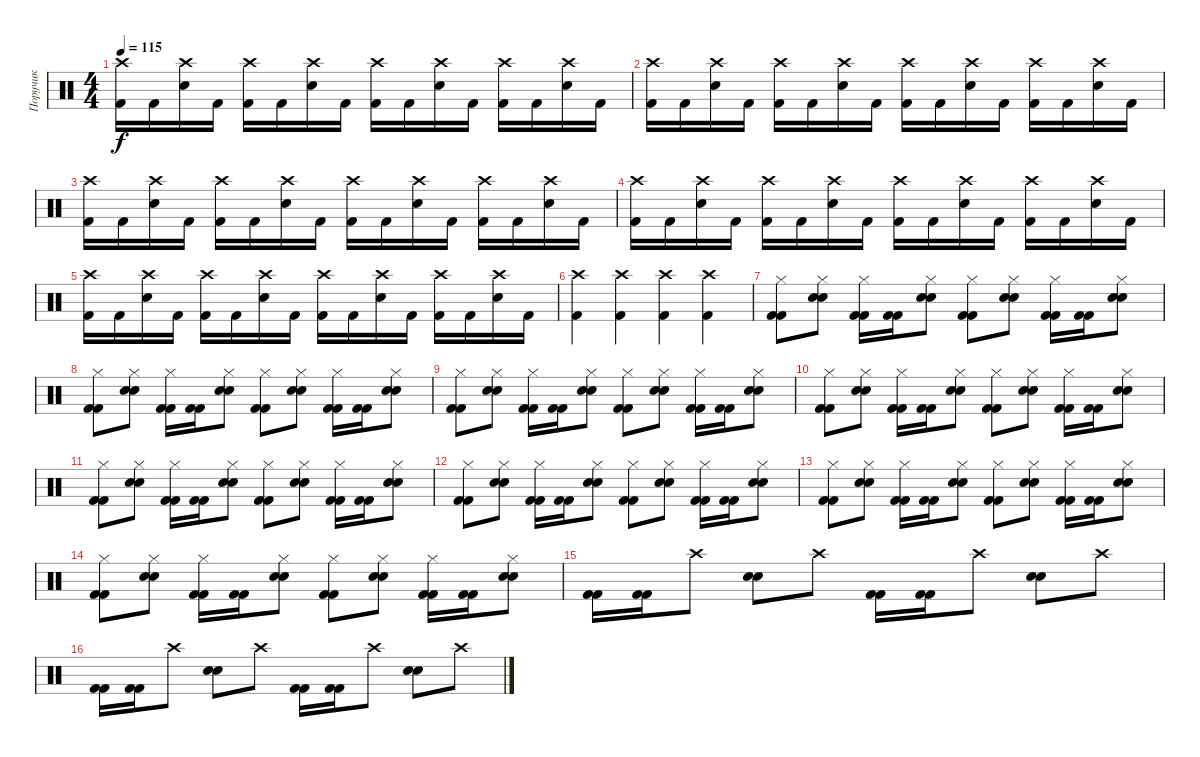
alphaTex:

\track ("Поручик" "Поручик") {instrument percussion}
\staff {score}
\articulation defaults
\ts (4 4)
\tempo 115
\clef neutral
\ks c
("Kick (hit) 2" "Crash high (hit)").16{dy f} "Kick (hit) 2".16 ("Snare (hit) 2" "Crash high (hit)").16 "Kick (hit) 2".16 ("Kick (hit) 2" "Crash high (hit)").16 "Kick (hit) 2".16 ("Snare (hit) 2" "Crash high (hit)").16 "Kick (hit) 2".16 ("Kick (hit) 2" "Crash high (hit)").16 "Kick (hit) 2".16 ("Snare (hit) 2" "Crash high (hit)").16 "Kick (hit) 2".16 ("Kick (hit) 2" "Crash high (hit)").16 "Kick (hit) 2".16 ("Snare (hit) 2" "Crash high (hit)").16 "Kick (hit) 2".16 |
("Kick (hit) 2" "Crash high (hit)").16 "Kick (hit) 2".16 ("Snare (hit) 2" "Crash high (hit)").16 "Kick (hit) 2".16 ("Kick (hit) 2" "Crash high (hit)").16 "Kick (hit) 2".16 ("Snare (hit) 2" "Crash high (hit)").16 "Kick (hit) 2".16 ("Kick (hit) 2" "Crash high (hit)").16 "Kick (hit) 2".16 ("Snare (hit) 2" "Crash high (hit)").16 "Kick (hit) 2".16 ("Kick (hit) 2" "Crash high (hit)").16 "Kick (hit) 2".16 ("Snare (hit) 2" "Crash high (hit)").16 "Kick (hit) 2".16 |
("Kick (hit) 2" "Crash high (hit)").16 "Kick (hit) 2".16 ("Snare (hit) 2" "Crash high (hit)").16 "Kick (hit) 2".16 ("Kick (hit) 2" "Crash high (hit)").16 "Kick (hit) 2".16 ("Snare (hit) 2" "Crash high (hit)").16 "Kick (hit) 2".16 ("Kick (hit) 2" "Crash high (hit)").16 "Kick (hit) 2".16 ("Snare (hit) 2" "Crash high (hit)").16 "Kick (hit) 2".16 ("Kick (hit) 2" "Crash high (hit)").16 "Kick (hit) 2".16 ("Snare (hit) 2" "Crash high (hit)").16 "Kick (hit) 2".16 |
("Kick (hit) 2" "Crash high (hit)").16 "Kick (hit) 2".16 ("Snare (hit) 2" "Crash high (hit)").16 "Kick (hit) 2".16 ("Kick (hit) 2" "Crash high (hit)").16 "Kick (hit) 2".16 ("Snare (hit) 2" "Crash high (hit)").16 "Kick (hit) 2".16 ("Kick (hit) 2" "Crash high (hit)").16 "Kick (hit) 2".16 ("Snare (hit) 2" "Crash high (hit)").16 "Kick (hit) 2".16 ("Kick (hit) 2" "Crash high (hit)").16 "Kick (hit) 2".16 ("Snare (hit) 2" "Crash high (hit)").16 "Kick (hit) 2".16 |
("Kick (hit) 2" "Crash high (hit)").16 "Kick (hit) 2".16 ("Snare (hit) 2" "Crash high (hit)").16 "Kick (hit) 2".16 ("Kick (hit) 2" "Crash high (hit)").16 "Kick (hit) 2".16 ("Snare (hit) 2" "Crash high (hit)").16 "Kick (hit) 2".16 ("Kick (hit) 2" "Crash high (hit)").16 "Kick (hit) 2".16 ("Snare (hit) 2" "Crash high (hit)").16 "Kick (hit) 2".16 ("Kick (hit) 2" "Crash high (hit)").16 "Kick (hit) 2".16 ("Snare (hit) 2" "Crash high (hit)").16 "Kick (hit) 2".16 |
("Kick (hit) 2" "Crash high (hit)").4 ("Kick (hit) 2" "Crash high (hit)").4 ("Kick (hit) 2" "Crash high (hit)").4 ("Kick (hit) 2" "Crash high (hit)").4 |
("Kick (hit) 2" "Hi-Hat (closed)" "Kick (hit) 2").8 ("Snare (hit) 2" "Hi-Hat (closed)" "Snare (hit) 2").8 ("Kick (hit) 2" "Hi-Hat (closed)" "Kick (hit) 2").16 ("Kick (hit) 2" "Kick (hit) 2").16 ("Snare (hit) 2" "Hi-Hat (closed)" "Snare (hit) 2").8 ("Kick (hit) 2" "Hi-Hat (closed)" "Kick (hit) 2").8 ("Snare (hit) 2" "Hi-Hat (closed)" "Snare (hit) 2").8 ("Kick (hit) 2" "Hi-Hat (closed)" "Kick (hit) 2").16 ("Kick (hit) 2" "Kick (hit) 2").16 ("Snare (hit) 2" "Hi-Hat (closed)" "Snare (hit) 2").8 |
("Kick (hit) 2" "Hi-Hat (closed)" "Kick (hit) 2").8 ("Snare (hit) 2" "Hi-Hat (closed)" "Snare (hit) 2").8 ("Kick (hit) 2" "Hi-Hat (closed)" "Kick (hit) 2").16 ("Kick (hit) 2" "Kick (hit) 2").16 ("Snare (hit) 2" "Hi-Hat (closed)" "Snare (hit) 2").8 ("Kick (hit) 2" "Hi-Hat (closed)" "Kick (hit) 2").8 ("Snare (hit) 2" "Hi-Hat (closed)" "Snare (hit) 2").8 ("Kick (hit) 2" "Hi-Hat (closed)" "Kick (hit) 2").16 ("Kick (hit) 2" "Kick (hit) 2").16 ("Snare (hit) 2" "Hi-Hat (closed)" "Snare (hit) 2").8 |
("Kick (hit) 2" "Hi-Hat (closed)" "Kick (hit) 2").8 ("Snare (hit) 2" "Hi-Hat (closed)" "Snare (hit) 2").8 ("Kick (hit) 2" "Hi-Hat (closed)" "Kick (hit) 2").16 ("Kick (hit) 2" "Kick (hit) 2").16 ("Snare (hit) 2" "Hi-Hat (closed)" "Snare (hit) 2").8 ("Kick (hit) 2" "Hi-Hat (closed)" "Kick (hit) 2").8 ("Snare (hit) 2" "Hi-Hat (closed)" "Snare (hit) 2").8 ("Kick (hit) 2" "Hi-Hat (closed)" "Kick (hit) 2").16 ("Kick (hit) 2" "Kick (hit) 2").16 ("Snare (hit) 2" "Hi-Hat (closed)" "Snare (hit) 2").8 |
("Kick (hit) 2" "Hi-Hat (closed)" "Kick (hit) 2").8 ("Snare (hit) 2" "Hi-Hat (closed)" "Snare (hit) 2").8 ("Kick (hit) 2" "Hi-Hat (closed)" "Kick (hit) 2").16 ("Kick (hit) 2" "Kick (hit) 2").16 ("Snare (hit) 2" "Hi-Hat (closed)" "Snare (hit) 2").8 ("Kick (hit) 2" "Hi-Hat (closed)" "Kick (hit) 2").8 ("Snare (hit) 2" "Hi-Hat (closed)" "Snare (hit) 2").8 ("Kick (hit) 2" "Hi-Hat (closed)" "Kick (hit) 2").16 ("Kick (hit) 2" "Kick (hit) 2").16 ("Snare (hit) 2" "Hi-Hat (closed)" "Snare (hit) 2").8 |
("Kick (hit) 2" "Hi-Hat (closed)" "Kick (hit) 2").8 ("Snare (hit) 2" "Hi-Hat (closed)" "Snare (hit) 2").8 ("Kick (hit) 2" "Hi-Hat (closed)" "Kick (hit) 2").16 ("Kick (hit) 2" "Kick (hit) 2").16 ("Snare (hit) 2" "Hi-Hat (closed)" "Snare (hit) 2").8 ("Kick (hit) 2" "Hi-Hat (closed)" "Kick (hit) 2").8 ("Snare (hit) 2" "Hi-Hat (closed)" "Snare (hit) 2").8 ("Kick (hit) 2" "Hi-Hat (closed)" "Kick (hit) 2").16 ("Kick (hit) 2" "Kick (hit) 2").16 ("Snare (hit) 2" "Hi-Hat (closed)" "Snare (hit) 2").8 |
("Kick (hit) 2" "Hi-Hat (closed)" "Kick (hit) 2").8 ("Snare (hit) 2" "Hi-Hat (closed)" "Snare (hit) 2").8 ("Kick (hit) 2" "Hi-Hat (closed)" "Kick (hit) 2").16 ("Kick (hit) 2" "Kick (hit) 2").16 ("Snare (hit) 2" "Hi-Hat (closed)" "Snare (hit) 2").8 ("Kick (hit) 2" "Hi-Hat (closed)" "Kick (hit) 2").8 ("Snare (hit) 2" "Hi-Hat (closed)" "Snare (hit) 2").8 ("Kick (hit) 2" "Hi-Hat (closed)" "Kick (hit) 2").16 ("Kick (hit) 2" "Kick (hit) 2").16 ("Snare (hit) 2" "Hi-Hat (closed)" "Snare (hit) 2").8 |
("Kick (hit) 2" "Hi-Hat (closed)" "Kick (hit) 2").8 ("Snare (hit) 2" "Hi-Hat (closed)" "Snare (hit) 2").8 ("Kick (hit) 2" "Hi-Hat (closed)" "Kick (hit) 2").16 ("Kick (hit) 2" "Kick (hit) 2").16 ("Snare (hit) 2" "Hi-Hat (closed)" "Snare (hit) 2").8 ("Kick (hit) 2" "Hi-Hat (closed)" "Kick (hit) 2").8 ("Snare (hit) 2" "Hi-Hat (closed)" "Snare (hit) 2").8 ("Kick (hit) 2" "Hi-Hat (closed)" "Kick (hit) 2").16 ("Kick (hit) 2" "Kick (hit) 2").16 ("Snare (hit) 2" "Hi-Hat (closed)" "Snare (hit) 2").8 |
("Kick (hit) 2" "Hi-Hat (closed)" "Kick (hit) 2").8 ("Snare (hit) 2" "Hi-Hat (closed)" "Snare (hit) 2").8 ("Kick (hit) 2" "Hi-Hat (closed)" "Kick (hit) 2").16 ("Kick (hit) 2" "Kick (hit) 2").16 ("Snare (hit) 2" "Hi-Hat (closed)" "Snare (hit) 2").8 ("Kick (hit) 2" "Hi-Hat (closed)" "Kick (hit) 2").8 ("Snare (hit) 2" "Hi-Hat (closed)" "Snare (hit) 2").8 ("Kick (hit) 2" "Hi-Hat (closed)" "Kick (hit) 2").16 ("Kick (hit) 2" "Kick (hit) 2").16 ("Snare (hit) 2" "Hi-Hat (closed)" "Snare (hit) 2").8 |
("Kick (hit) 2" "Kick (hit) 2").16 ("Kick (hit) 2" "Kick (hit) 2").16 "Crash high (hit)".8 ("Snare (hit) 2" "Snare (hit) 2").8 "Crash high (hit)".8 ("Kick (hit) 2" "Kick (hit) 2").16 ("Kick (hit) 2" "Kick (hit) 2").16 "Crash high (hit)".8 ("Snare (hit) 2" "Snare (hit) 2").8 "Crash high (hit)".8 |
("Kick (hit) 2" "Kick (hit) 2").16 ("Kick (hit) 2" "Kick (hit) 2").16 "Crash high (hit)".8 ("Snare (hit) 2" "Snare (hit) 2").8 "Crash high (hit)".8 ("Kick (hit) 2" "Kick (hit) 2").16 ("Kick (hit) 2" "Kick (hit) 2").16 "Crash high (hit)".8 ("Snare (hit) 2" "Snare (hit) 2").8 "Crash high (hit)".8
